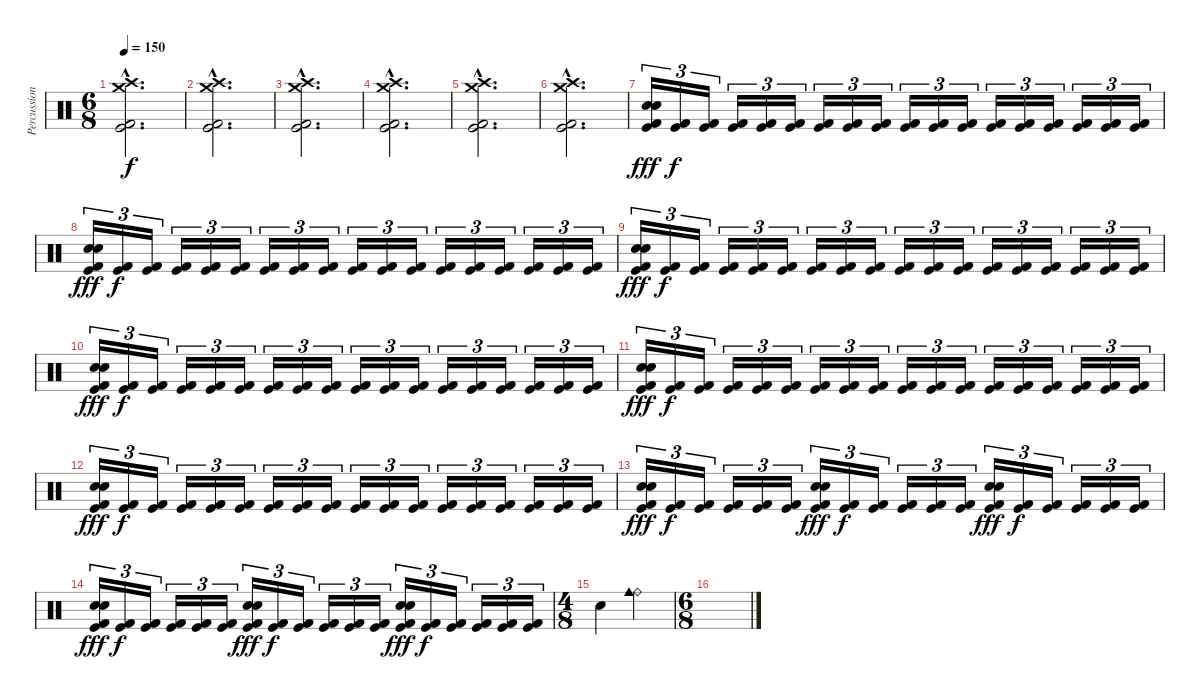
\track ("Percussion" "Percussion") {instrument percussion}
\staff {score}
\articulation defaults
\ts (6 8)
\tempo 150
\clef neutral
\ks c
("Crash high (hit)"{hac} "Crash medium (hit)"{hac} "Kick (hit)"{hac} "Kick (hit) 2"{hac}).2{d dy f} |
("Crash high (hit)"{hac} "Crash medium (hit)"{hac} "Kick (hit)"{hac} "Kick (hit) 2"{hac}).2{d} |
("Crash high (hit)"{hac} "Crash medium (hit)"{hac} "Kick (hit)"{hac} "Kick (hit) 2"{hac}).2{d} |
("Crash high (hit)"{hac} "Crash medium (hit)"{hac} "Kick (hit)"{hac} "Kick (hit) 2"{hac}).2{d} |
("Crash high (hit)"{hac} "Crash medium (hit)"{hac} "Kick (hit)"{hac} "Kick (hit) 2"{hac}).2{d} |
("Crash high (hit)"{hac} "Crash medium (hit)"{hac} "Kick (hit)"{hac} "Kick (hit) 2"{hac}).2{d} |
("Electric Snare (hit)" "Electric Snare (hit)" "Kick (hit)" "Kick (hit) 2").16{tu (3 2) dy fff} ("Kick (hit)" "Kick (hit) 2").16{tu (3 2) dy f} ("Kick (hit)" "Kick (hit) 2").16{tu (3 2)} ("Kick (hit)" "Kick (hit) 2").16{tu (3 2)} ("Kick (hit)" "Kick (hit) 2").16{tu (3 2)} ("Kick (hit)" "Kick (hit) 2").16{tu (3 2)} ("Kick (hit)" "Kick (hit) 2").16{tu (3 2)} ("Kick (hit)" "Kick (hit) 2").16{tu (3 2)} ("Kick (hit)" "Kick (hit) 2").16{tu (3 2)} ("Kick (hit)" "Kick (hit) 2").16{tu (3 2)} ("Kick (hit)" "Kick (hit) 2").16{tu (3 2)} ("Kick (hit)" "Kick (hit) 2").16{tu (3 2)} ("Kick (hit)" "Kick (hit) 2").16{tu (3 2)} ("Kick (hit)" "Kick (hit) 2").16{tu (3 2)} ("Kick (hit)" "Kick (hit) 2").16{tu (3 2)} ("Kick (hit)" "Kick (hit) 2").16{tu (3 2)} ("Kick (hit)" "Kick (hit) 2").16{tu (3 2)} ("Kick (hit)" "Kick (hit) 2").16{tu (3 2)} |
("Electric Snare (hit)" "Electric Snare (hit)" "Kick (hit)" "Kick (hit) 2").16{tu (3 2) dy fff} ("Kick (hit)" "Kick (hit) 2").16{tu (3 2) dy f} ("Kick (hit)" "Kick (hit) 2").16{tu (3 2)} ("Kick (hit)" "Kick (hit) 2").16{tu (3 2)} ("Kick (hit)" "Kick (hit) 2").16{tu (3 2)} ("Kick (hit)" "Kick (hit) 2").16{tu (3 2)} ("Kick (hit)" "Kick (hit) 2").16{tu (3 2)} ("Kick (hit)" "Kick (hit) 2").16{tu (3 2)} ("Kick (hit)" "Kick (hit) 2").16{tu (3 2)} ("Kick (hit)" "Kick (hit) 2").16{tu (3 2)} ("Kick (hit)" "Kick (hit) 2").16{tu (3 2)} ("Kick (hit)" "Kick (hit) 2").16{tu (3 2)} ("Kick (hit)" "Kick (hit) 2").16{tu (3 2)} ("Kick (hit)" "Kick (hit) 2").16{tu (3 2)} ("Kick (hit)" "Kick (hit) 2").16{tu (3 2)} ("Kick (hit)" "Kick (hit) 2").16{tu (3 2)} ("Kick (hit)" "Kick (hit) 2").16{tu (3 2)} ("Kick (hit)" "Kick (hit) 2").16{tu (3 2)} |
("Electric Snare (hit)" "Electric Snare (hit)" "Kick (hit)" "Kick (hit) 2").16{tu (3 2) dy fff} ("Kick (hit)" "Kick (hit) 2").16{tu (3 2) dy f} ("Kick (hit)" "Kick (hit) 2").16{tu (3 2)} ("Kick (hit)" "Kick (hit) 2").16{tu (3 2)} ("Kick (hit)" "Kick (hit) 2").16{tu (3 2)} ("Kick (hit)" "Kick (hit) 2").16{tu (3 2)} ("Kick (hit)" "Kick (hit) 2").16{tu (3 2)} ("Kick (hit)" "Kick (hit) 2").16{tu (3 2)} ("Kick (hit)" "Kick (hit) 2").16{tu (3 2)} ("Kick (hit)" "Kick (hit) 2").16{tu (3 2)} ("Kick (hit)" "Kick (hit) 2").16{tu (3 2)} ("Kick (hit)" "Kick (hit) 2").16{tu (3 2)} ("Kick (hit)" "Kick (hit) 2").16{tu (3 2)} ("Kick (hit)" "Kick (hit) 2").16{tu (3 2)} ("Kick (hit)" "Kick (hit) 2").16{tu (3 2)} ("Kick (hit)" "Kick (hit) 2").16{tu (3 2)} ("Kick (hit)" "Kick (hit) 2").16{tu (3 2)} ("Kick (hit)" "Kick (hit) 2").16{tu (3 2)} |
("Electric Snare (hit)" "Electric Snare (hit)" "Kick (hit)" "Kick (hit) 2").16{tu (3 2) dy fff} ("Kick (hit)" "Kick (hit) 2").16{tu (3 2) dy f} ("Kick (hit)" "Kick (hit) 2").16{tu (3 2)} ("Kick (hit)" "Kick (hit) 2").16{tu (3 2)} ("Kick (hit)" "Kick (hit) 2").16{tu (3 2)} ("Kick (hit)" "Kick (hit) 2").16{tu (3 2)} ("Kick (hit)" "Kick (hit) 2").16{tu (3 2)} ("Kick (hit)" "Kick (hit) 2").16{tu (3 2)} ("Kick (hit)" "Kick (hit) 2").16{tu (3 2)} ("Kick (hit)" "Kick (hit) 2").16{tu (3 2)} ("Kick (hit)" "Kick (hit) 2").16{tu (3 2)} ("Kick (hit)" "Kick (hit) 2").16{tu (3 2)} ("Kick (hit)" "Kick (hit) 2").16{tu (3 2)} ("Kick (hit)" "Kick (hit) 2").16{tu (3 2)} ("Kick (hit)" "Kick (hit) 2").16{tu (3 2)} ("Kick (hit)" "Kick (hit) 2").16{tu (3 2)} ("Kick (hit)" "Kick (hit) 2").16{tu (3 2)} ("Kick (hit)" "Kick (hit) 2").16{tu (3 2)} |
("Electric Snare (hit)" "Electric Snare (hit)" "Kick (hit)" "Kick (hit) 2").16{tu (3 2) dy fff} ("Kick (hit)" "Kick (hit) 2").16{tu (3 2) dy f} ("Kick (hit)" "Kick (hit) 2").16{tu (3 2)} ("Kick (hit)" "Kick (hit) 2").16{tu (3 2)} ("Kick (hit)" "Kick (hit) 2").16{tu (3 2)} ("Kick (hit)" "Kick (hit) 2").16{tu (3 2)} ("Kick (hit)" "Kick (hit) 2").16{tu (3 2)} ("Kick (hit)" "Kick (hit) 2").16{tu (3 2)} ("Kick (hit)" "Kick (hit) 2").16{tu (3 2)} ("Kick (hit)" "Kick (hit) 2").16{tu (3 2)} ("Kick (hit)" "Kick (hit) 2").16{tu (3 2)} ("Kick (hit)" "Kick (hit) 2").16{tu (3 2)} ("Kick (hit)" "Kick (hit) 2").16{tu (3 2)} ("Kick (hit)" "Kick (hit) 2").16{tu (3 2)} ("Kick (hit)" "Kick (hit) 2").16{tu (3 2)} ("Kick (hit)" "Kick (hit) 2").16{tu (3 2)} ("Kick (hit)" "Kick (hit) 2").16{tu (3 2)} ("Kick (hit)" "Kick (hit) 2").16{tu (3 2)} |
("Electric Snare (hit)" "Electric Snare (hit)" "Kick (hit)" "Kick (hit) 2").16{tu (3 2) dy fff} ("Kick (hit)" "Kick (hit) 2").16{tu (3 2) dy f} ("Kick (hit)" "Kick (hit) 2").16{tu (3 2)} ("Kick (hit)" "Kick (hit) 2").16{tu (3 2)} ("Kick (hit)" "Kick (hit) 2").16{tu (3 2)} ("Kick (hit)" "Kick (hit) 2").16{tu (3 2)} ("Kick (hit)" "Kick (hit) 2").16{tu (3 2)} ("Kick (hit)" "Kick (hit) 2").16{tu (3 2)} ("Kick (hit)" "Kick (hit) 2").16{tu (3 2)} ("Kick (hit)" "Kick (hit) 2").16{tu (3 2)} ("Kick (hit)" "Kick (hit) 2").16{tu (3 2)} ("Kick (hit)" "Kick (hit) 2").16{tu (3 2)} ("Kick (hit)" "Kick (hit) 2").16{tu (3 2)} ("Kick (hit)" "Kick (hit) 2").16{tu (3 2)} ("Kick (hit)" "Kick (hit) 2").16{tu (3 2)} ("Kick (hit)" "Kick (hit) 2").16{tu (3 2)} ("Kick (hit)" "Kick (hit) 2").16{tu (3 2)} ("Kick (hit)" "Kick (hit) 2").16{tu (3 2)} |
("Electric Snare (hit)" "Electric Snare (hit)" "Kick (hit)" "Kick (hit) 2").16{tu (3 2) dy fff} ("Kick (hit)" "Kick (hit) 2").16{tu (3 2) dy f} ("Kick (hit)" "Kick (hit) 2").16{tu (3 2)} ("Kick (hit)" "Kick (hit) 2").16{tu (3 2)} ("Kick (hit)" "Kick (hit) 2").16{tu (3 2)} ("Kick (hit)" "Kick (hit) 2").16{tu (3 2)} ("Electric Snare (hit)" "Electric Snare (hit)" "Kick (hit)" "Kick (hit) 2").16{tu (3 2) dy fff} ("Kick (hit)" "Kick (hit) 2").16{tu (3 2) dy f} ("Kick (hit)" "Kick (hit) 2").16{tu (3 2)} ("Kick (hit)" "Kick (hit) 2").16{tu (3 2)} ("Kick (hit)" "Kick (hit) 2").16{tu (3 2)} ("Kick (hit)" "Kick (hit) 2").16{tu (3 2)} ("Electric Snare (hit)" "Electric Snare (hit)" "Kick (hit)" "Kick (hit) 2").16{tu (3 2) dy fff} ("Kick (hit)" "Kick (hit) 2").16{tu (3 2) dy f} ("Kick (hit)" "Kick (hit) 2").16{tu (3 2)} ("Kick (hit)" "Kick (hit) 2").16{tu (3 2)} ("Kick (hit)" "Kick (hit) 2").16{tu (3 2)} ("Kick (hit)" "Kick (hit) 2").16{tu (3 2)} |
("Electric Snare (hit)" "Electric Snare (hit)" "Kick (hit)" "Kick (hit) 2").16{tu (3 2) dy fff} ("Kick (hit)" "Kick (hit) 2").16{tu (3 2) dy f} ("Kick (hit)" "Kick (hit) 2").16{tu (3 2)} ("Kick (hit)" "Kick (hit) 2").16{tu (3 2)} ("Kick (hit)" "Kick (hit) 2").16{tu (3 2)} ("Kick (hit)" "Kick (hit) 2").16{tu (3 2)} ("Electric Snare (hit)" "Electric Snare (hit)" "Kick (hit)" "Kick (hit) 2").16{tu (3 2) dy fff} ("Kick (hit)" "Kick (hit) 2").16{tu (3 2) dy f} ("Kick (hit)" "Kick (hit) 2").16{tu (3 2)} ("Kick (hit)" "Kick (hit) 2").16{tu (3 2)} ("Kick (hit)" "Kick (hit) 2").16{tu (3 2)} ("Kick (hit)" "Kick (hit) 2").16{tu (3 2)} ("Electric Snare (hit)" "Electric Snare (hit)" "Kick (hit)" "Kick (hit) 2").16{tu (3 2) dy fff} ("Kick (hit)" "Kick (hit) 2").16{tu (3 2) dy f} ("Kick (hit)" "Kick (hit) 2").16{tu (3 2)} ("Kick (hit)" "Kick (hit) 2").16{tu (3 2)} ("Kick (hit)" "Kick (hit) 2").16{tu (3 2)} ("Kick (hit)" "Kick (hit) 2").16{tu (3 2)} |
\ts (4 8)
"Electric Snare (hit)".4 ("Ride (bell)" "Cowbell medium (hit)").4 |
\ts (6 8)
